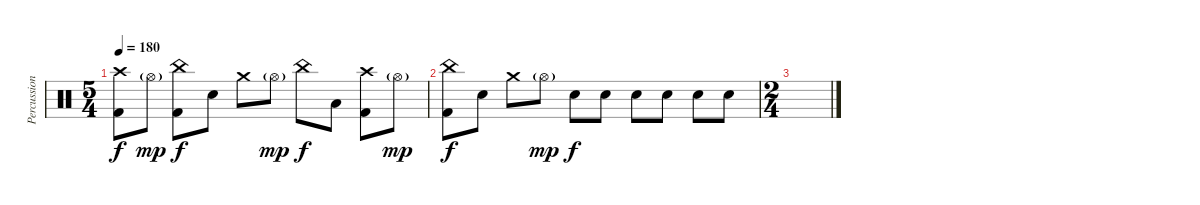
\track ("Percussion" "Percussion") {instrument percussion}
\staff {score}
\articulation defaults
\ts (5 4)
\tempo 180
\clef neutral
\ks c
("Crash high (hit)" "Kick (hit) 2").8{dy f} "Hi-Hat (open)"{g}.8{dy mp} ("China (hit)" "Kick (hit) 2").8{dy f} "Snare (hit) 2".8 "Crash medium (hit)".8 "Hi-Hat (open)"{g}.8{dy mp} "China (hit)".8{dy f} "Low Tom (hit)".8 ("Crash high (hit)" "Kick (hit) 2").8 "Hi-Hat (open)"{g}.8{dy mp} |
("China (hit)" "Kick (hit) 2").8{dy f} "Snare (hit) 2".8 "Crash medium (hit)".8 "Hi-Hat (open)"{g}.8{dy mp} "Snare (hit) 2".8{dy f} "Snare (hit) 2".8 "Snare (hit) 2".8 "Snare (hit) 2".8 "Snare (hit) 2".8 "Snare (hit) 2".8 |
\ts (2 4)
